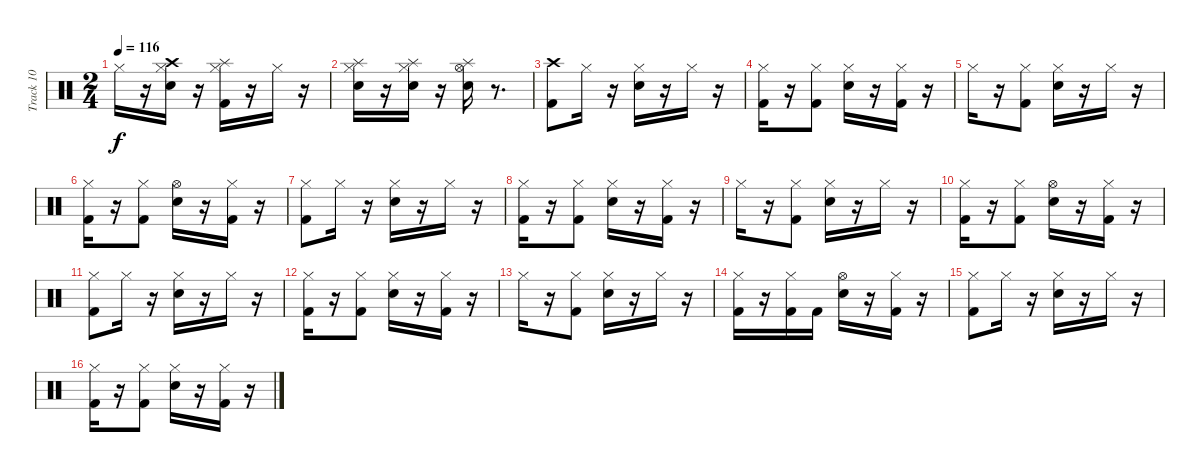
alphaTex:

\track ("Track 10" "Track 10") {instrument percussion}
\staff {score}
\articulation defaults
\ts (2 4)
\tempo 116
\clef neutral
\ks c "Hi-Hat (closed)".16{dy f}
r.16 ("Hi-Hat (closed)" "Crash high (hit)" "Electric Snare (hit)").16 r.16 ("Splash (hit)" "Kick (hit) 2" "Hi-Hat (closed)").16 r.16 "Hi-Hat (closed)".16 r.16 |
("Hi-Hat (closed)" "Electric Snare (hit)" "Splash (hit)").16 r.16 ("Hi-Hat (closed)" "Electric Snare (hit)" "Splash (hit)").16 r.16 ("Splash (hit)" "Electric Snare (hit)" "Hi-Hat (open)").16 r.8{d} |
("Crash high (hit)" "Kick (hit) 2").8 "Hi-Hat (closed)".16 r.16 ("Hi-Hat (closed)" "Electric Snare (hit)").16 r.16 "Hi-Hat (closed)".16 r.16 |
("Kick (hit) 2" "Hi-Hat (closed)").16 r.16 ("Kick (hit) 2" "Hi-Hat (closed)").8 ("Electric Snare (hit)" "Hi-Hat (closed)").16 r.16 ("Kick (hit) 2" "Hi-Hat (closed)").16 r.16 |
"Hi-Hat (closed)".16 r.16 ("Kick (hit) 2" "Hi-Hat (closed)").8 ("Electric Snare (hit)" "Hi-Hat (closed)").16 r.16 "Hi-Hat (closed)".16 r.16 |
("Kick (hit) 2" "Hi-Hat (closed)").16 r.16 ("Hi-Hat (closed)" "Kick (hit) 2").8 ("Hi-Hat (open)" "Electric Snare (hit)").16 r.16 ("Hi-Hat (closed)" "Kick (hit) 2").16 r.16 |
("Hi-Hat (closed)" "Kick (hit) 2").8 "Hi-Hat (closed)".16 r.16 ("Hi-Hat (closed)" "Electric Snare (hit)").16 r.16 "Hi-Hat (closed)".16 r.16 |
("Kick (hit) 2" "Hi-Hat (closed)").16 r.16 ("Kick (hit) 2" "Hi-Hat (closed)").8 ("Electric Snare (hit)" "Hi-Hat (closed)").16 r.16 ("Kick (hit) 2" "Hi-Hat (closed)").16 r.16 |
"Hi-Hat (closed)".16 r.16 ("Kick (hit) 2" "Hi-Hat (closed)").8 ("Electric Snare (hit)" "Hi-Hat (closed)").16 r.16 "Hi-Hat (closed)".16 r.16 |
("Kick (hit) 2" "Hi-Hat (closed)").16 r.16 ("Hi-Hat (closed)" "Kick (hit) 2").8 ("Hi-Hat (open)" "Electric Snare (hit)").16 r.16 ("Hi-Hat (closed)" "Kick (hit) 2").16 r.16 |
("Hi-Hat (closed)" "Kick (hit) 2").8 "Hi-Hat (closed)".16 r.16 ("Hi-Hat (closed)" "Electric Snare (hit)").16 r.16 "Hi-Hat (closed)".16 r.16 |
("Kick (hit) 2" "Hi-Hat (closed)").16 r.16 ("Kick (hit) 2" "Hi-Hat (closed)").8 ("Electric Snare (hit)" "Hi-Hat (closed)").16 r.16 ("Kick (hit) 2" "Hi-Hat (closed)").16 r.16 |
"Hi-Hat (closed)".16 r.16 ("Kick (hit) 2" "Hi-Hat (closed)").8 ("Electric Snare (hit)" "Hi-Hat (closed)").16 r.16 "Hi-Hat (closed)".16 r.16 |
("Kick (hit) 2" "Hi-Hat (closed)").16 r.16 ("Hi-Hat (closed)" "Kick (hit) 2").16 "Kick (hit) 2".16 ("Hi-Hat (open)" "Electric Snare (hit)").16 r.16 ("Hi-Hat (closed)" "Kick (hit) 2").16 r.16 |
("Hi-Hat (closed)" "Kick (hit) 2").8 "Hi-Hat (closed)".16 r.16 ("Hi-Hat (closed)" "Electric Snare (hit)").16 r.16 "Hi-Hat (closed)".16 r.16 |
("Kick (hit) 2" "Hi-Hat (closed)").16 r.16 ("Kick (hit) 2" "Hi-Hat (closed)").8 ("Electric Snare (hit)" "Hi-Hat (closed)").16 r.16 ("Kick (hit) 2" "Hi-Hat (closed)").16 r.16
